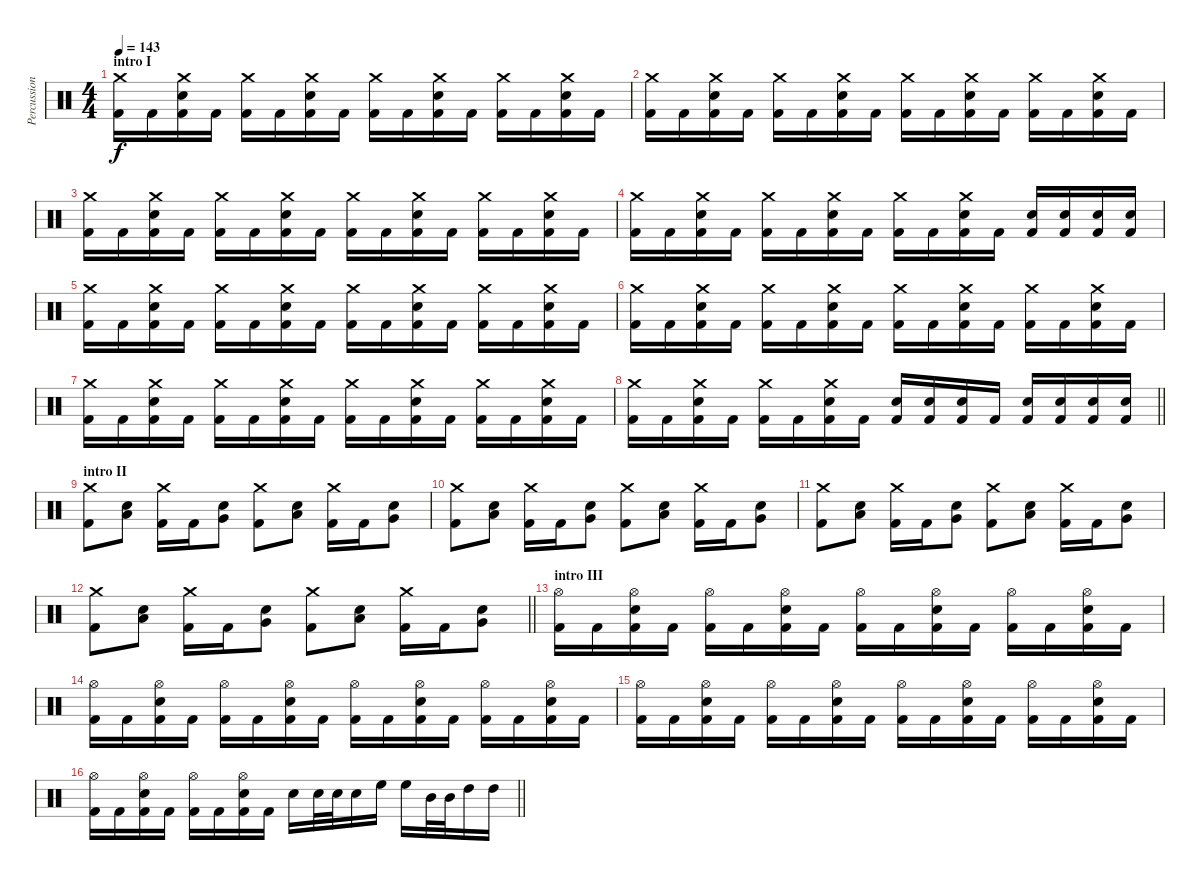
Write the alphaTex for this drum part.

\track ("Percussion" "Percussion") {instrument percussion}
\staff {score}
\articulation defaults
\ts (4 4)
\section ("" "intro I")
\tempo 143
\clef neutral
\ks c
("Crash medium (hit)" "Kick (hit) 2").16{dy f} "Kick (hit) 2".16 ("Crash medium (hit)" "Snare (hit) 2" "Kick (hit) 2").16 "Kick (hit) 2".16 ("Crash medium (hit)" "Kick (hit) 2").16 "Kick (hit) 2".16 ("Crash medium (hit)" "Snare (hit) 2" "Kick (hit) 2").16 "Kick (hit) 2".16 ("Crash medium (hit)" "Kick (hit) 2").16 "Kick (hit) 2".16 ("Crash medium (hit)" "Snare (hit) 2" "Kick (hit) 2").16 "Kick (hit) 2".16 ("Crash medium (hit)" "Kick (hit) 2").16 "Kick (hit) 2".16 ("Crash medium (hit)" "Snare (hit) 2" "Kick (hit) 2").16 "Kick (hit) 2".16 |
("Crash medium (hit)" "Kick (hit) 2").16 "Kick (hit) 2".16 ("Crash medium (hit)" "Snare (hit) 2" "Kick (hit) 2").16 "Kick (hit) 2".16 ("Crash medium (hit)" "Kick (hit) 2").16 "Kick (hit) 2".16 ("Crash medium (hit)" "Snare (hit) 2" "Kick (hit) 2").16 "Kick (hit) 2".16 ("Crash medium (hit)" "Kick (hit) 2").16 "Kick (hit) 2".16 ("Crash medium (hit)" "Snare (hit) 2" "Kick (hit) 2").16 "Kick (hit) 2".16 ("Crash medium (hit)" "Kick (hit) 2").16 "Kick (hit) 2".16 ("Crash medium (hit)" "Snare (hit) 2" "Kick (hit) 2").16 "Kick (hit) 2".16 |
("Crash medium (hit)" "Kick (hit) 2").16 "Kick (hit) 2".16 ("Crash medium (hit)" "Snare (hit) 2" "Kick (hit) 2").16 "Kick (hit) 2".16 ("Crash medium (hit)" "Kick (hit) 2").16 "Kick (hit) 2".16 ("Crash medium (hit)" "Snare (hit) 2" "Kick (hit) 2").16 "Kick (hit) 2".16 ("Crash medium (hit)" "Kick (hit) 2").16 "Kick (hit) 2".16 ("Crash medium (hit)" "Snare (hit) 2" "Kick (hit) 2").16 "Kick (hit) 2".16 ("Crash medium (hit)" "Kick (hit) 2").16 "Kick (hit) 2".16 ("Crash medium (hit)" "Snare (hit) 2" "Kick (hit) 2").16 "Kick (hit) 2".16 |
("Crash medium (hit)" "Kick (hit) 2").16 "Kick (hit) 2".16 ("Crash medium (hit)" "Snare (hit) 2" "Kick (hit) 2").16 "Kick (hit) 2".16 ("Crash medium (hit)" "Kick (hit) 2").16 "Kick (hit) 2".16 ("Crash medium (hit)" "Snare (hit) 2" "Kick (hit) 2").16 "Kick (hit) 2".16 ("Crash medium (hit)" "Kick (hit) 2").16 "Kick (hit) 2".16 ("Crash medium (hit)" "Snare (hit) 2" "Kick (hit) 2").16 "Kick (hit) 2".16 ("Snare (hit) 2" "Kick (hit) 2").16 ("Snare (hit) 2" "Kick (hit) 2").16 ("Snare (hit) 2" "Kick (hit) 2").16 ("Snare (hit) 2" "Kick (hit) 2").16 |
("Crash medium (hit)" "Kick (hit) 2").16 "Kick (hit) 2".16 ("Crash medium (hit)" "Snare (hit) 2" "Kick (hit) 2").16 "Kick (hit) 2".16 ("Crash medium (hit)" "Kick (hit) 2").16 "Kick (hit) 2".16 ("Crash medium (hit)" "Snare (hit) 2" "Kick (hit) 2").16 "Kick (hit) 2".16 ("Crash medium (hit)" "Kick (hit) 2").16 "Kick (hit) 2".16 ("Crash medium (hit)" "Snare (hit) 2" "Kick (hit) 2").16 "Kick (hit) 2".16 ("Crash medium (hit)" "Kick (hit) 2").16 "Kick (hit) 2".16 ("Crash medium (hit)" "Snare (hit) 2" "Kick (hit) 2").16 "Kick (hit) 2".16 |
("Crash medium (hit)" "Kick (hit) 2").16 "Kick (hit) 2".16 ("Crash medium (hit)" "Snare (hit) 2" "Kick (hit) 2").16 "Kick (hit) 2".16 ("Crash medium (hit)" "Kick (hit) 2").16 "Kick (hit) 2".16 ("Crash medium (hit)" "Snare (hit) 2" "Kick (hit) 2").16 "Kick (hit) 2".16 ("Crash medium (hit)" "Kick (hit) 2").16 "Kick (hit) 2".16 ("Crash medium (hit)" "Snare (hit) 2" "Kick (hit) 2").16 "Kick (hit) 2".16 ("Crash medium (hit)" "Kick (hit) 2").16 "Kick (hit) 2".16 ("Crash medium (hit)" "Snare (hit) 2" "Kick (hit) 2").16 "Kick (hit) 2".16 |
("Crash medium (hit)" "Kick (hit) 2").16 "Kick (hit) 2".16 ("Crash medium (hit)" "Snare (hit) 2" "Kick (hit) 2").16 "Kick (hit) 2".16 ("Crash medium (hit)" "Kick (hit) 2").16 "Kick (hit) 2".16 ("Crash medium (hit)" "Snare (hit) 2" "Kick (hit) 2").16 "Kick (hit) 2".16 ("Crash medium (hit)" "Kick (hit) 2").16 "Kick (hit) 2".16 ("Crash medium (hit)" "Snare (hit) 2" "Kick (hit) 2").16 "Kick (hit) 2".16 ("Crash medium (hit)" "Kick (hit) 2").16 "Kick (hit) 2".16 ("Crash medium (hit)" "Snare (hit) 2" "Kick (hit) 2").16 "Kick (hit) 2".16 |
\barLineRight lightlight
("Crash medium (hit)" "Kick (hit) 2").16 "Kick (hit) 2".16 ("Crash medium (hit)" "Snare (hit) 2" "Kick (hit) 2").16 "Kick (hit) 2".16 ("Crash medium (hit)" "Kick (hit) 2").16 "Kick (hit) 2".16 ("Crash medium (hit)" "Snare (hit) 2" "Kick (hit) 2").16 "Kick (hit) 2".16 ("Snare (hit) 2" "Kick (hit) 2").16 ("Snare (hit) 2" "Kick (hit) 2").16 ("Snare (hit) 2" "Kick (hit) 2").16 "Kick (hit) 2".16 ("Snare (hit) 2" "Kick (hit) 2").16 ("Snare (hit) 2" "Kick (hit) 2").16 ("Snare (hit) 2" "Kick (hit) 2").16 ("Snare (hit) 2" "Kick (hit) 2").16 |
\section ("" "intro II")
("Crash medium (hit)" "Kick (hit) 2").8 ("Low Floor Tom (hit)" "Snare (hit) 2").8 ("Crash medium (hit)" "Kick (hit) 2").16 "Kick (hit) 2".16 ("Very Low Tom (hit)" "Snare (hit) 2").8 ("Crash medium (hit)" "Kick (hit) 2").8 ("Low Floor Tom (hit)" "Snare (hit) 2").8 ("Crash medium (hit)" "Kick (hit) 2").16 "Kick (hit) 2".16 ("Very Low Tom (hit)" "Snare (hit) 2").8 |
("Crash medium (hit)" "Kick (hit) 2").8 ("Low Floor Tom (hit)" "Snare (hit) 2").8 ("Crash medium (hit)" "Kick (hit) 2").16 "Kick (hit) 2".16 ("Very Low Tom (hit)" "Snare (hit) 2").8 ("Crash medium (hit)" "Kick (hit) 2").8 ("Low Floor Tom (hit)" "Snare (hit) 2").8 ("Crash medium (hit)" "Kick (hit) 2").16 "Kick (hit) 2".16 ("Very Low Tom (hit)" "Snare (hit) 2").8 |
("Crash medium (hit)" "Kick (hit) 2").8 ("Low Floor Tom (hit)" "Snare (hit) 2").8 ("Crash medium (hit)" "Kick (hit) 2").16 "Kick (hit) 2".16 ("Very Low Tom (hit)" "Snare (hit) 2").8 ("Crash medium (hit)" "Kick (hit) 2").8 ("Low Floor Tom (hit)" "Snare (hit) 2").8 ("Crash medium (hit)" "Kick (hit) 2").16 "Kick (hit) 2".16 ("Very Low Tom (hit)" "Snare (hit) 2").8 |
\barLineRight lightlight
("Crash medium (hit)" "Kick (hit) 2").8 ("Low Floor Tom (hit)" "Snare (hit) 2").8 ("Crash medium (hit)" "Kick (hit) 2").16 "Kick (hit) 2".16 ("Very Low Tom (hit)" "Snare (hit) 2").8 ("Crash medium (hit)" "Kick (hit) 2").8 ("Low Floor Tom (hit)" "Snare (hit) 2").8 ("Crash medium (hit)" "Kick (hit) 2").16 "Kick (hit) 2".16 ("Very Low Tom (hit)" "Snare (hit) 2").8 |
\section ("" "intro III")
("Hi-Hat (open)" "Kick (hit) 2").16 "Kick (hit) 2".16 ("Hi-Hat (open)" "Snare (hit) 2" "Kick (hit) 2").16 "Kick (hit) 2".16 ("Hi-Hat (open)" "Kick (hit) 2").16 "Kick (hit) 2".16 ("Hi-Hat (open)" "Snare (hit) 2" "Kick (hit) 2").16 "Kick (hit) 2".16 ("Hi-Hat (open)" "Kick (hit) 2").16 "Kick (hit) 2".16 ("Hi-Hat (open)" "Snare (hit) 2" "Kick (hit) 2").16 "Kick (hit) 2".16 ("Hi-Hat (open)" "Kick (hit) 2").16 "Kick (hit) 2".16 ("Hi-Hat (open)" "Snare (hit) 2" "Kick (hit) 2").16 "Kick (hit) 2".16 |
("Hi-Hat (open)" "Kick (hit) 2").16 "Kick (hit) 2".16 ("Hi-Hat (open)" "Snare (hit) 2" "Kick (hit) 2").16 "Kick (hit) 2".16 ("Hi-Hat (open)" "Kick (hit) 2").16 "Kick (hit) 2".16 ("Hi-Hat (open)" "Snare (hit) 2" "Kick (hit) 2").16 "Kick (hit) 2".16 ("Hi-Hat (open)" "Kick (hit) 2").16 "Kick (hit) 2".16 ("Hi-Hat (open)" "Snare (hit) 2" "Kick (hit) 2").16 "Kick (hit) 2".16 ("Hi-Hat (open)" "Kick (hit) 2").16 "Kick (hit) 2".16 ("Hi-Hat (open)" "Snare (hit) 2" "Kick (hit) 2").16 "Kick (hit) 2".16 |
("Hi-Hat (open)" "Kick (hit) 2").16 "Kick (hit) 2".16 ("Hi-Hat (open)" "Snare (hit) 2" "Kick (hit) 2").16 "Kick (hit) 2".16 ("Hi-Hat (open)" "Kick (hit) 2").16 "Kick (hit) 2".16 ("Hi-Hat (open)" "Snare (hit) 2" "Kick (hit) 2").16 "Kick (hit) 2".16 ("Hi-Hat (open)" "Kick (hit) 2").16 "Kick (hit) 2".16 ("Hi-Hat (open)" "Snare (hit) 2" "Kick (hit) 2").16 "Kick (hit) 2".16 ("Hi-Hat (open)" "Kick (hit) 2").16 "Kick (hit) 2".16 ("Hi-Hat (open)" "Snare (hit) 2" "Kick (hit) 2").16 "Kick (hit) 2".16 |
\barLineRight lightlight
("Hi-Hat (open)" "Kick (hit) 2").16 "Kick (hit) 2".16 ("Hi-Hat (open)" "Snare (hit) 2" "Kick (hit) 2").16 "Kick (hit) 2".16 ("Hi-Hat (open)" "Kick (hit) 2").16 "Kick (hit) 2".16 ("Hi-Hat (open)" "Snare (hit) 2" "Kick (hit) 2").16 "Kick (hit) 2".16 "Snare (hit) 2".16 "Snare (hit) 2".32 "Electric Snare (hit)".32 "Electric Snare (hit)".16 "High Floor Tom (hit)".16 "High Floor Tom (hit)".16 "Mid Tom (hit)".32 "Mid Tom (hit)".32 "High Tom (hit)".16 "High Tom (hit)".16
